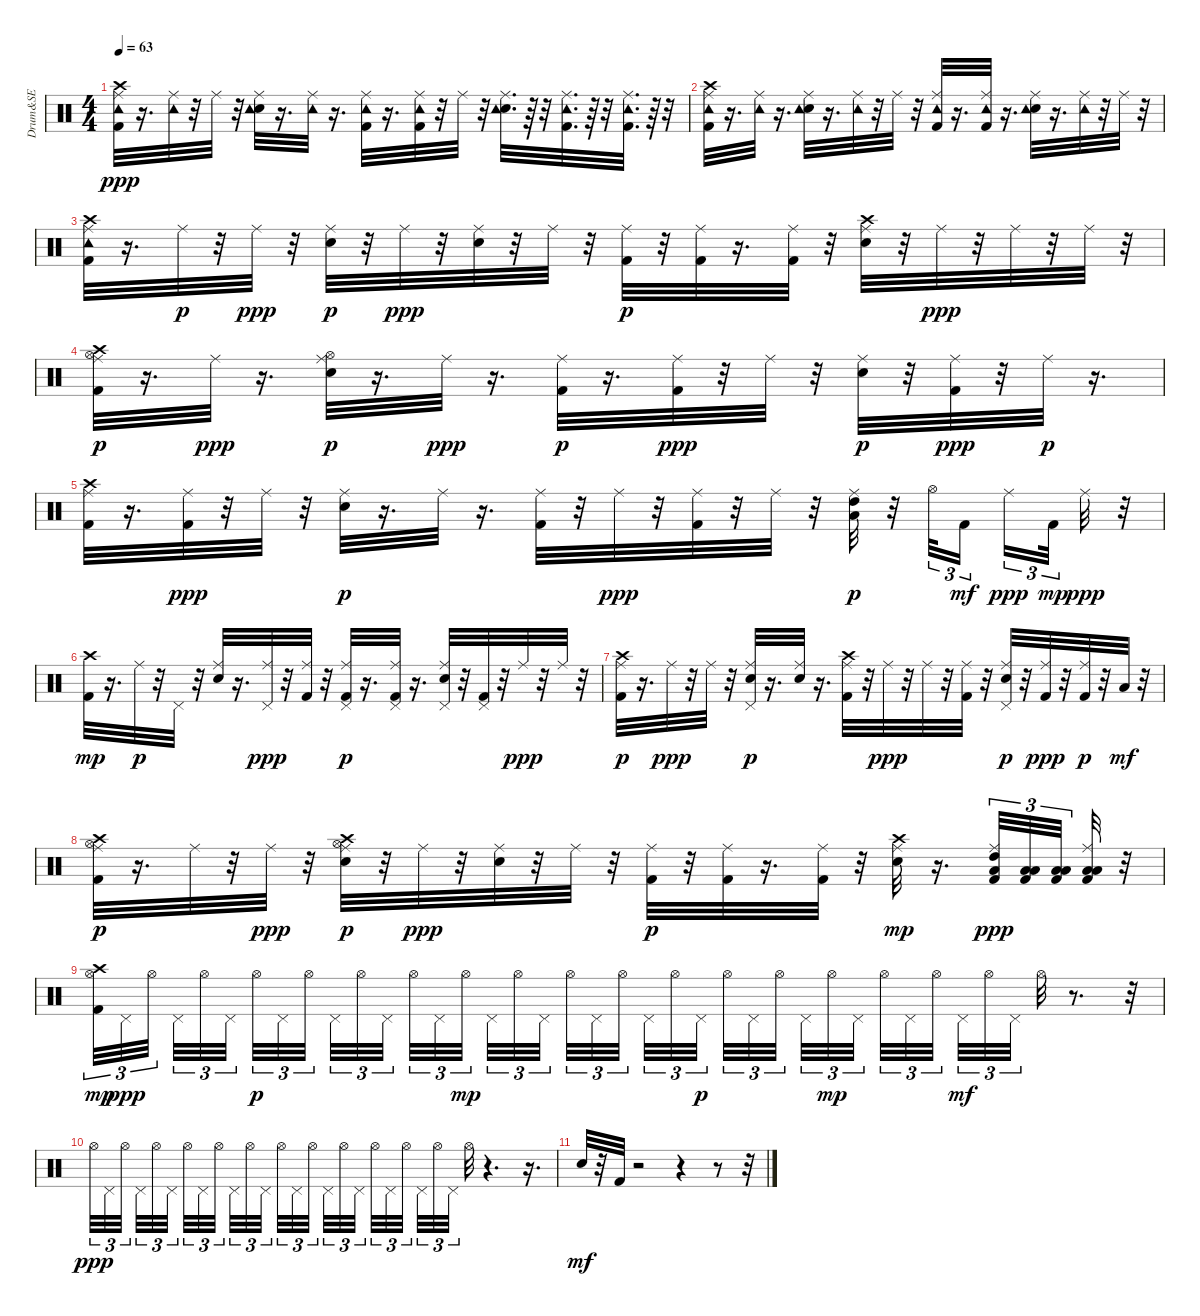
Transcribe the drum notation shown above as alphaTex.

\track ("Drum&SE" "Drum&SE") {instrument percussion}
\staff {score}
\articulation defaults
\ts (4 4)
\tempo 63
\clef neutral
\ks c
("Kick (hit) 2" "Crash high (hit)" "Ride (middle)" "Tambourine (hit)").32{dy ppp} r.16{d} ("Ride (middle)" "Tambourine (hit)").32 r.32 "Ride (middle)".32 r.32 ("Snare (hit) 2" "Ride (middle)" "Tambourine (hit)").32 r.16{d} ("Ride (middle)" "Tambourine (hit)").32 r.16{d} ("Kick (hit) 2" "Ride (middle)" "Tambourine (hit)").32 r.16{d} ("Kick (hit) 2" "Ride (middle)" "Tambourine (hit)").32 r.32 "Ride (middle)".32 r.32 ("Snare (hit) 2" "Ride (middle)" "Tambourine (hit)").32{d} r.64 r.32 ("Kick (hit) 2" "Ride (middle)" "Tambourine (hit)").32{d} r.64 r.32 ("Kick (hit) 2" "Ride (middle)" "Tambourine (hit)").32{d} r.64 r.32 |
("Kick (hit) 2" "Crash high (hit)" "Ride (middle)" "Tambourine (hit)").32 r.16{d} ("Ride (middle)" "Tambourine (hit)").32 r.16{d} ("Snare (hit) 2" "Ride (middle)" "Tambourine (hit)").32 r.16{d} ("Ride (middle)" "Tambourine (hit)").32 r.32 "Ride (middle)".32 r.32 ("Ride (middle)" "Kick (hit) 2" "Tambourine (hit)").32 r.16{d} ("Kick (hit) 2" "Ride (middle)" "Tambourine (hit)").32 r.16{d} ("Snare (hit) 2" "Ride (middle)" "Tambourine (hit)").32 r.16{d} ("Ride (middle)" "Tambourine (hit)").32 r.32 "Ride (middle)".32 r.32 |
("Kick (hit) 2" "Crash high (hit)" "Ride (middle)" "Tambourine (hit)").32 r.16{d} "Ride (middle)".32{dy p} r.32 "Ride (middle)".32{dy ppp} r.32 ("Snare (hit) 2" "Ride (middle)").32{dy p} r.32 "Ride (middle)".32{dy ppp} r.32 ("Snare (hit) 2" "Ride (middle)").32 r.32 "Ride (middle)".32 r.32 ("Kick (hit) 2" "Ride (middle)").32{dy p} r.32 ("Kick (hit) 2" "Ride (middle)").32 r.16{d} ("Kick (hit) 2" "Ride (middle)").32 r.32 ("Snare (hit) 2" "Crash high (hit)" "Ride (middle)").32 r.32 "Ride (middle)".32{dy ppp} r.32 "Ride (middle)".32 r.32 "Ride (middle)".32 r.32 |
("Kick (hit) 2" "Hi-Hat (open)" "Crash high (hit)" "Ride (middle)").32{dy p} r.16{d} "Ride (middle)".32{dy ppp} r.16{d} ("Snare (hit) 2" "Hi-Hat (open)" "Ride (middle)").32{dy p} r.16{d} "Ride (middle)".32{dy ppp} r.16{d} ("Kick (hit) 2" "Ride (middle)").32{dy p} r.16{d} ("Kick (hit) 2" "Ride (middle)").32{dy ppp} r.32 "Ride (middle)".32 r.32 ("Snare (hit) 2" "Ride (middle)").32{dy p} r.32 ("Kick (hit) 2" "Ride (middle)").32{dy ppp} r.32 "Ride (middle)".32{dy p} r.16{d} |
("Kick (hit) 2" "Crash high (hit)" "Ride (middle)").32 r.16{d} ("Kick (hit) 2" "Ride (middle)").32{dy ppp} r.32 "Ride (middle)".32 r.32 ("Snare (hit) 2" "Ride (middle)").32{dy p} r.16{d} "Ride (middle)".32 r.16{d} ("Kick (hit) 2" "Ride (middle)").32 r.32 "Ride (middle)".32{dy ppp} r.32 ("Kick (hit) 2" "Ride (middle)").32 r.32 "Ride (middle)".32 r.32 ("Low Tom (hit)" "High Tom (hit)" "Ride (middle)").32{dy p} r.32 "Hi-Hat (open)".32{tu (3 2)} "Kick (hit) 2".16{tu (3 2) dy mf beam splitsecondary} "Ride (middle)".16{tu (3 2) dy ppp} "Kick (hit) 2".32{tu (3 2) dy mp} "Ride (middle)".32{dy ppp} r.32 |
("Kick (hit) 2" "Crash high (hit)").32{dy mp} r.16{d} "Ride (middle)".32{dy p} r.32 "Pedal Hi-Hat (hit)".32 r.32 ("Snare (hit) 2" "Ride (middle)").32 r.16{d} ("Pedal Hi-Hat (hit)" "Ride (middle)").32{dy ppp} r.32 ("Kick (hit) 2" "Ride (middle)").32 r.32 ("Kick (hit) 2" "Pedal Hi-Hat (hit)" "Ride (middle)").32{dy p} r.16{d} ("Kick (hit) 2" "Pedal Hi-Hat (hit)" "Ride (middle)").32 r.16{d} ("Snare (hit) 2" "Pedal Hi-Hat (hit)" "Ride (middle)").32 r.32 ("Kick (hit) 2" "Pedal Hi-Hat (hit)").32 r.32 "Ride (middle)".32{dy ppp} r.32 "Ride (middle)".32 r.32 |
("Kick (hit) 2" "Crash high (hit)" "Ride (middle)").32{dy p} r.16{d} "Ride (middle)".32{dy ppp} r.32 "Ride (middle)".32 r.32 ("Snare (hit) 2" "Pedal Hi-Hat (hit)" "Ride (middle)").32{dy p} r.16{d} ("Snare (hit) 2" "Ride (middle)").32 r.16{d} ("Kick (hit) 2" "Crash high (hit)" "Ride (middle)").32 r.32 "Ride (middle)".32{dy ppp} r.32 "Ride (middle)".32 r.32 ("Kick (hit) 2" "Ride (middle)").32 r.32 ("Snare (hit) 2" "Pedal Hi-Hat (hit)" "Ride (middle)").32{dy p} r.32 ("Kick (hit) 2" "Ride (middle)").32{dy ppp} r.32 ("Kick (hit) 2" "Ride (middle)").32{dy p} r.32 "Low Floor Tom (hit)".32{dy mf} r.32 |
("Kick (hit) 2" "Hi-Hat (open)" "Crash high (hit)" "Ride (middle)").32{dy p} r.16{d} "Ride (middle)".32 r.32 "Ride (middle)".32{dy ppp} r.32 ("Snare (hit) 2" "Hi-Hat (open)" "Crash high (hit)" "Ride (middle)").32{dy p} r.32 "Ride (middle)".32{dy ppp} r.32 ("Snare (hit) 2" "Ride (middle)").32 r.32 "Ride (middle)".32 r.32 ("Kick (hit) 2" "Ride (middle)").32{dy p} r.32 ("Kick (hit) 2" "Ride (middle)").32 r.16{d} ("Kick (hit) 2" "Ride (middle)").32 r.32 ("Snare (hit) 2" "Crash high (hit)" "Ride (middle)").32{dy mp} r.16{d} ("High Tom (hit)" "Kick (hit) 2" "Low Floor Tom (hit)" "Ride (middle)").32{tu (3 2) dy ppp} ("Kick (hit) 2" "Low Floor Tom (hit)" "Low Tom (hit)").32{tu (3 2)} ("Kick (hit) 2" "Low Floor Tom (hit)" "Low Tom (hit)").32{tu (3 2) beam splitsecondary} ("Low Floor Tom (hit)" "Kick (hit) 2" "Low Floor Tom (hit)" "Ride (middle)").32 r.32 |
("Kick (hit) 2" "Hi-Hat (open)" "Crash high (hit)").32{tu (3 2) dy mp} "Pedal Hi-Hat (hit)".32{tu (3 2) dy ppp} "Hi-Hat (open)".32{tu (3 2) beam splitsecondary} "Pedal Hi-Hat (hit)".32{tu (3 2)} "Hi-Hat (open)".32{tu (3 2)} "Pedal Hi-Hat (hit)".32{tu (3 2) beam splitsecondary} "Hi-Hat (open)".32{tu (3 2) dy p} "Pedal Hi-Hat (hit)".32{tu (3 2)} "Hi-Hat (open)".32{tu (3 2) beam splitsecondary} "Pedal Hi-Hat (hit)".32{tu (3 2)} "Hi-Hat (open)".32{tu (3 2)} "Pedal Hi-Hat (hit)".32{tu (3 2)} "Hi-Hat (open)".32{tu (3 2)} "Pedal Hi-Hat (hit)".32{tu (3 2)} "Hi-Hat (open)".32{tu (3 2) dy mp beam splitsecondary} "Pedal Hi-Hat (hit)".32{tu (3 2)} "Hi-Hat (open)".32{tu (3 2)} "Pedal Hi-Hat (hit)".32{tu (3 2) beam splitsecondary} "Hi-Hat (open)".32{tu (3 2)} "Pedal Hi-Hat (hit)".32{tu (3 2)} "Hi-Hat (open)".32{tu (3 2) beam splitsecondary} "Pedal Hi-Hat (hit)".32{tu (3 2)} "Hi-Hat (open)".32{tu (3 2)} "Pedal Hi-Hat (hit)".32{tu (3 2) dy p} "Hi-Hat (open)".32{tu (3 2)} "Pedal Hi-Hat (hit)".32{tu (3 2)} "Hi-Hat (open)".32{tu (3 2) beam splitsecondary} "Pedal Hi-Hat (hit)".32{tu (3 2)} "Hi-Hat (open)".32{tu (3 2) dy mp} "Pedal Hi-Hat (hit)".32{tu (3 2) beam splitsecondary} "Hi-Hat (open)".32{tu (3 2)} "Pedal Hi-Hat (hit)".32{tu (3 2)} "Hi-Hat (open)".32{tu (3 2) beam splitsecondary} "Pedal Hi-Hat (hit)".32{tu (3 2) dy mf} "Hi-Hat (open)".32{tu (3 2)} "Pedal Hi-Hat (hit)".32{tu (3 2)} "Hi-Hat (open)".32 r.8{d} r.32 |
"Hi-Hat (open)".32{tu (3 2) dy ppp} "Pedal Hi-Hat (hit)".32{tu (3 2)} "Hi-Hat (open)".32{tu (3 2) beam splitsecondary} "Pedal Hi-Hat (hit)".32{tu (3 2)} "Hi-Hat (open)".32{tu (3 2)} "Pedal Hi-Hat (hit)".32{tu (3 2) beam splitsecondary} "Hi-Hat (open)".32{tu (3 2)} "Pedal Hi-Hat (hit)".32{tu (3 2)} "Hi-Hat (open)".32{tu (3 2) beam splitsecondary} "Pedal Hi-Hat (hit)".32{tu (3 2)} "Hi-Hat (open)".32{tu (3 2)} "Pedal Hi-Hat (hit)".32{tu (3 2)} "Hi-Hat (open)".32{tu (3 2)} "Pedal Hi-Hat (hit)".32{tu (3 2)} "Hi-Hat (open)".32{tu (3 2) beam splitsecondary} "Pedal Hi-Hat (hit)".32{tu (3 2)} "Hi-Hat (open)".32{tu (3 2)} "Pedal Hi-Hat (hit)".32{tu (3 2) beam splitsecondary} "Hi-Hat (open)".32{tu (3 2)} "Pedal Hi-Hat (hit)".32{tu (3 2)} "Hi-Hat (open)".32{tu (3 2) beam splitsecondary} "Pedal Hi-Hat (hit)".32{tu (3 2)} "Hi-Hat (open)".32{tu (3 2)} "Pedal Hi-Hat (hit)".32{tu (3 2)} "Hi-Hat (open)".32 r.4{d} r.16{d} |
"Snare (hit) 2".32{dy mf} r.32 "Kick (hit) 2".32 r.2 r.4 r.8 r.32
